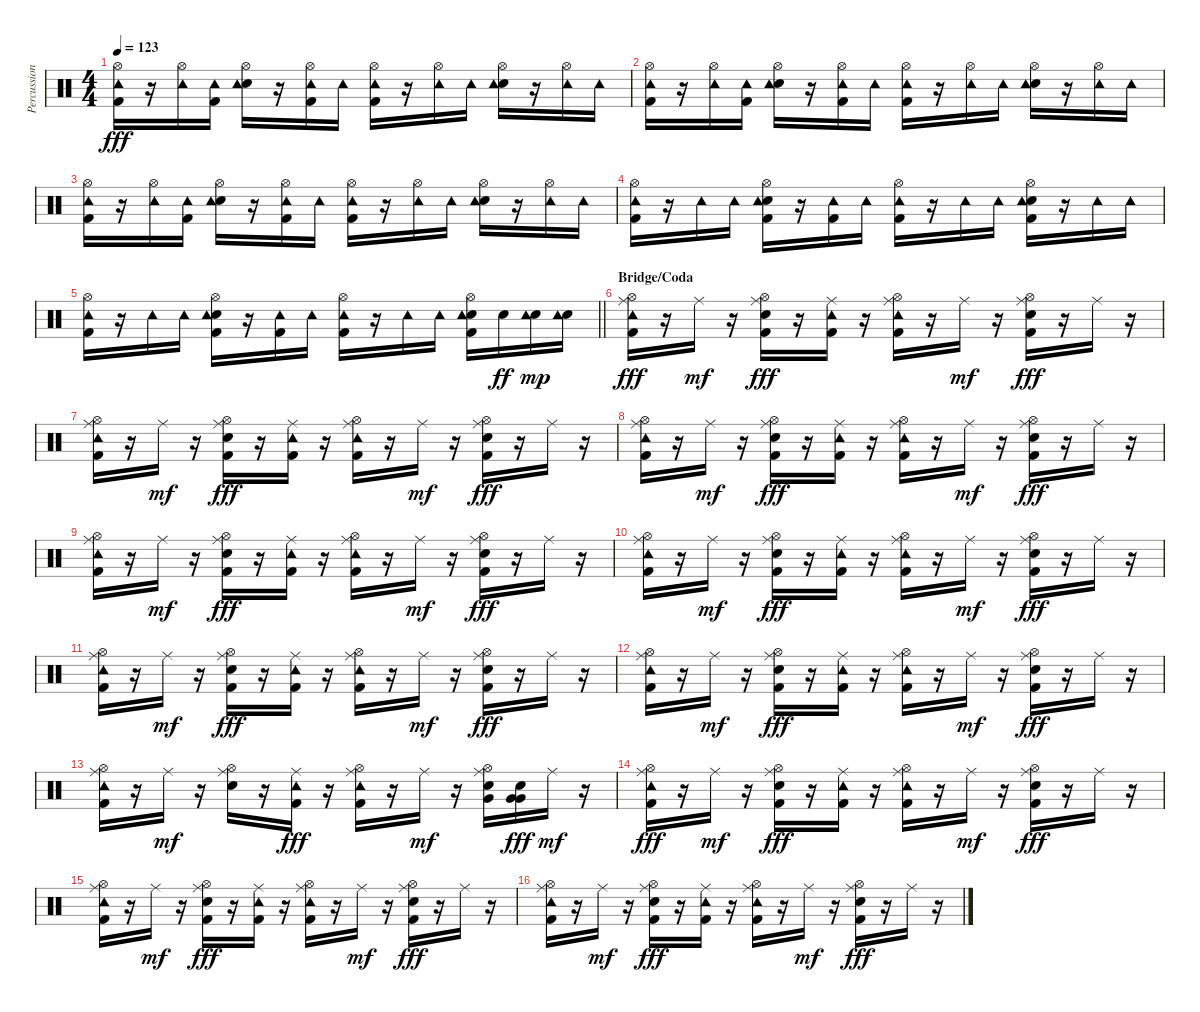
\track ("Percussion: Liberty D'Vitto" "Percussion") {instrument percussion}
\staff {score}
\articulation defaults
\ts (4 4)
\tempo 123
\clef neutral
\ks c
("Hi-Hat (open)" "Tambourine (hit)" "Kick (hit) 2").16{dy fff} r.16 ("Hi-Hat (open)" "Tambourine (hit)").16 ("Tambourine (hit)" "Kick (hit) 2").16 ("Hi-Hat (open)" "Snare (hit) 2" "Tambourine (hit)").16 r.16 ("Hi-Hat (open)" "Tambourine (hit)" "Kick (hit) 2").16 "Tambourine (hit)".16 ("Hi-Hat (open)" "Tambourine (hit)" "Kick (hit) 2").16 r.16 ("Hi-Hat (open)" "Tambourine (hit)").16 "Tambourine (hit)".16 ("Hi-Hat (open)" "Snare (hit) 2" "Tambourine (hit)").16 r.16 ("Hi-Hat (open)" "Tambourine (hit)").16 "Tambourine (hit)".16 |
("Hi-Hat (open)" "Tambourine (hit)" "Kick (hit) 2").16 r.16 ("Hi-Hat (open)" "Tambourine (hit)").16 ("Tambourine (hit)" "Kick (hit) 2").16 ("Hi-Hat (open)" "Snare (hit) 2" "Tambourine (hit)").16 r.16 ("Hi-Hat (open)" "Tambourine (hit)" "Kick (hit) 2").16 "Tambourine (hit)".16 ("Hi-Hat (open)" "Tambourine (hit)" "Kick (hit) 2").16 r.16 ("Hi-Hat (open)" "Tambourine (hit)").16 "Tambourine (hit)".16 ("Hi-Hat (open)" "Snare (hit) 2" "Tambourine (hit)").16 r.16 ("Hi-Hat (open)" "Tambourine (hit)").16 "Tambourine (hit)".16 |
("Hi-Hat (open)" "Tambourine (hit)" "Kick (hit) 2").16 r.16 ("Hi-Hat (open)" "Tambourine (hit)").16 ("Tambourine (hit)" "Kick (hit) 2").16 ("Hi-Hat (open)" "Snare (hit) 2" "Tambourine (hit)").16 r.16 ("Hi-Hat (open)" "Tambourine (hit)" "Kick (hit) 2").16 "Tambourine (hit)".16 ("Hi-Hat (open)" "Tambourine (hit)" "Kick (hit) 2").16 r.16 ("Hi-Hat (open)" "Tambourine (hit)").16 "Tambourine (hit)".16 ("Hi-Hat (open)" "Snare (hit) 2" "Tambourine (hit)").16 r.16 ("Hi-Hat (open)" "Tambourine (hit)").16 "Tambourine (hit)".16 |
("Hi-Hat (open)" "Tambourine (hit)" "Kick (hit) 2").16 r.16 "Tambourine (hit)".16 "Tambourine (hit)".16 ("Hi-Hat (open)" "Snare (hit) 2" "Tambourine (hit)" "Kick (hit) 2").16 r.16 ("Tambourine (hit)" "Kick (hit) 2").16 "Tambourine (hit)".16 ("Hi-Hat (open)" "Tambourine (hit)" "Kick (hit) 2").16 r.16 "Tambourine (hit)".16 "Tambourine (hit)".16 ("Hi-Hat (open)" "Snare (hit) 2" "Tambourine (hit)" "Kick (hit) 2").16 r.16 "Tambourine (hit)".16 "Tambourine (hit)".16 |
\barLineRight lightlight
("Hi-Hat (open)" "Tambourine (hit)" "Kick (hit) 2").16 r.16 "Tambourine (hit)".16 "Tambourine (hit)".16 ("Hi-Hat (open)" "Snare (hit) 2" "Tambourine (hit)" "Kick (hit) 2").16 r.16 ("Tambourine (hit)" "Kick (hit) 2").16 "Tambourine (hit)".16 ("Hi-Hat (open)" "Tambourine (hit)" "Kick (hit) 2").16 r.16 "Tambourine (hit)".16 "Tambourine (hit)".16 ("Hi-Hat (open)" "Snare (hit) 2" "Tambourine (hit)" "Kick (hit) 2").16 "Snare (hit) 2".16{dy ff} ("Snare (hit) 2" "Tambourine (hit)").16{dy mp} ("Snare (hit) 2" "Tambourine (hit)").16 |
\section ("" "Bridge/Coda")
("Ride (middle)" "Hi-Hat (open)" "Tambourine (hit)" "Kick (hit) 2").16{dy fff} r.16 "Ride (middle)".16{dy mf} r.16 ("Ride (middle)" "Hi-Hat (open)" "Snare (hit) 2" "Kick (hit) 2").16{dy fff} r.16 ("Ride (middle)" "Tambourine (hit)" "Kick (hit) 2").16 r.16 ("Ride (middle)" "Hi-Hat (open)" "Tambourine (hit)" "Kick (hit) 2").16 r.16 "Ride (middle)".16{dy mf} r.16 ("Ride (middle)" "Hi-Hat (open)" "Snare (hit) 2" "Kick (hit) 2").16{dy fff} r.16 "Ride (middle)".16 r.16 |
("Ride (middle)" "Hi-Hat (open)" "Tambourine (hit)" "Kick (hit) 2").16 r.16 "Ride (middle)".16{dy mf} r.16 ("Ride (middle)" "Hi-Hat (open)" "Snare (hit) 2" "Kick (hit) 2").16{dy fff} r.16 ("Ride (middle)" "Tambourine (hit)" "Kick (hit) 2").16 r.16 ("Ride (middle)" "Hi-Hat (open)" "Tambourine (hit)" "Kick (hit) 2").16 r.16 "Ride (middle)".16{dy mf} r.16 ("Ride (middle)" "Hi-Hat (open)" "Snare (hit) 2" "Kick (hit) 2").16{dy fff} r.16 "Ride (middle)".16 r.16 |
("Ride (middle)" "Hi-Hat (open)" "Tambourine (hit)" "Kick (hit) 2").16 r.16 "Ride (middle)".16{dy mf} r.16 ("Ride (middle)" "Hi-Hat (open)" "Snare (hit) 2" "Kick (hit) 2").16{dy fff} r.16 ("Ride (middle)" "Tambourine (hit)" "Kick (hit) 2").16 r.16 ("Ride (middle)" "Hi-Hat (open)" "Tambourine (hit)" "Kick (hit) 2").16 r.16 "Ride (middle)".16{dy mf} r.16 ("Ride (middle)" "Hi-Hat (open)" "Snare (hit) 2" "Kick (hit) 2").16{dy fff} r.16 "Ride (middle)".16 r.16 |
("Ride (middle)" "Hi-Hat (open)" "Tambourine (hit)" "Kick (hit) 2").16 r.16 "Ride (middle)".16{dy mf} r.16 ("Ride (middle)" "Hi-Hat (open)" "Snare (hit) 2" "Kick (hit) 2").16{dy fff} r.16 ("Ride (middle)" "Tambourine (hit)" "Kick (hit) 2").16 r.16 ("Ride (middle)" "Hi-Hat (open)" "Tambourine (hit)" "Kick (hit) 2").16 r.16 "Ride (middle)".16{dy mf} r.16 ("Ride (middle)" "Hi-Hat (open)" "Snare (hit) 2" "Kick (hit) 2").16{dy fff} r.16 "Ride (middle)".16 r.16 |
("Ride (middle)" "Hi-Hat (open)" "Tambourine (hit)" "Kick (hit) 2").16 r.16 "Ride (middle)".16{dy mf} r.16 ("Ride (middle)" "Hi-Hat (open)" "Snare (hit) 2" "Kick (hit) 2").16{dy fff} r.16 ("Ride (middle)" "Tambourine (hit)" "Kick (hit) 2").16 r.16 ("Ride (middle)" "Hi-Hat (open)" "Tambourine (hit)" "Kick (hit) 2").16 r.16 "Ride (middle)".16{dy mf} r.16 ("Ride (middle)" "Hi-Hat (open)" "Snare (hit) 2" "Kick (hit) 2").16{dy fff} r.16 "Ride (middle)".16 r.16 |
("Ride (middle)" "Hi-Hat (open)" "Tambourine (hit)" "Kick (hit) 2").16 r.16 "Ride (middle)".16{dy mf} r.16 ("Ride (middle)" "Hi-Hat (open)" "Snare (hit) 2" "Kick (hit) 2").16{dy fff} r.16 ("Ride (middle)" "Tambourine (hit)" "Kick (hit) 2").16 r.16 ("Ride (middle)" "Hi-Hat (open)" "Tambourine (hit)" "Kick (hit) 2").16 r.16 "Ride (middle)".16{dy mf} r.16 ("Ride (middle)" "Hi-Hat (open)" "Snare (hit) 2" "Kick (hit) 2").16{dy fff} r.16 "Ride (middle)".16 r.16 |
("Ride (middle)" "Hi-Hat (open)" "Tambourine (hit)" "Kick (hit) 2").16 r.16 "Ride (middle)".16{dy mf} r.16 ("Ride (middle)" "Hi-Hat (open)" "Snare (hit) 2" "Kick (hit) 2").16{dy fff} r.16 ("Ride (middle)" "Tambourine (hit)" "Kick (hit) 2").16 r.16 ("Ride (middle)" "Hi-Hat (open)" "Tambourine (hit)" "Kick (hit) 2").16 r.16 "Ride (middle)".16{dy mf} r.16 ("Ride (middle)" "Hi-Hat (open)" "Snare (hit) 2" "Kick (hit) 2").16{dy fff} r.16 "Ride (middle)".16 r.16 |
("Ride (middle)" "Hi-Hat (open)" "Tambourine (hit)" "Kick (hit) 2").16 r.16 "Ride (middle)".16{dy mf} r.16 ("Ride (middle)" "Hi-Hat (open)" "Snare (hit) 2").16 r.16 ("Ride (middle)" "Tambourine (hit)" "Kick (hit) 2").16{dy fff} r.16 ("Ride (middle)" "Hi-Hat (open)" "Tambourine (hit)" "Kick (hit) 2").16 r.16 "Ride (middle)".16{dy mf} r.16 ("Ride (middle)" "Hi-Hat (open)" "Snare (hit) 2" "Very Low Tom (hit)").16 ("Very Low Tom (hit)" "Snare (hit) 2" "Very Low Tom (hit)").16{dy fff} "Ride (middle)".16{dy mf} r.16 |
("Ride (middle)" "Hi-Hat (open)" "Tambourine (hit)" "Kick (hit) 2").16{dy fff} r.16 "Ride (middle)".16{dy mf} r.16 ("Ride (middle)" "Hi-Hat (open)" "Snare (hit) 2" "Kick (hit) 2").16{dy fff} r.16 ("Ride (middle)" "Tambourine (hit)" "Kick (hit) 2").16 r.16 ("Ride (middle)" "Hi-Hat (open)" "Tambourine (hit)" "Kick (hit) 2").16 r.16 "Ride (middle)".16{dy mf} r.16 ("Ride (middle)" "Hi-Hat (open)" "Snare (hit) 2" "Kick (hit) 2").16{dy fff} r.16 "Ride (middle)".16 r.16 |
("Ride (middle)" "Hi-Hat (open)" "Tambourine (hit)" "Kick (hit) 2").16 r.16 "Ride (middle)".16{dy mf} r.16 ("Ride (middle)" "Hi-Hat (open)" "Snare (hit) 2" "Kick (hit) 2").16{dy fff} r.16 ("Ride (middle)" "Tambourine (hit)" "Kick (hit) 2").16 r.16 ("Ride (middle)" "Hi-Hat (open)" "Tambourine (hit)" "Kick (hit) 2").16 r.16 "Ride (middle)".16{dy mf} r.16 ("Ride (middle)" "Hi-Hat (open)" "Snare (hit) 2" "Kick (hit) 2").16{dy fff} r.16 "Ride (middle)".16 r.16 |
("Ride (middle)" "Hi-Hat (open)" "Tambourine (hit)" "Kick (hit) 2").16 r.16 "Ride (middle)".16{dy mf} r.16 ("Ride (middle)" "Hi-Hat (open)" "Snare (hit) 2" "Kick (hit) 2").16{dy fff} r.16 ("Ride (middle)" "Tambourine (hit)" "Kick (hit) 2").16 r.16 ("Ride (middle)" "Hi-Hat (open)" "Tambourine (hit)" "Kick (hit) 2").16 r.16 "Ride (middle)".16{dy mf} r.16 ("Ride (middle)" "Hi-Hat (open)" "Snare (hit) 2" "Kick (hit) 2").16{dy fff} r.16 "Ride (middle)".16 r.16
